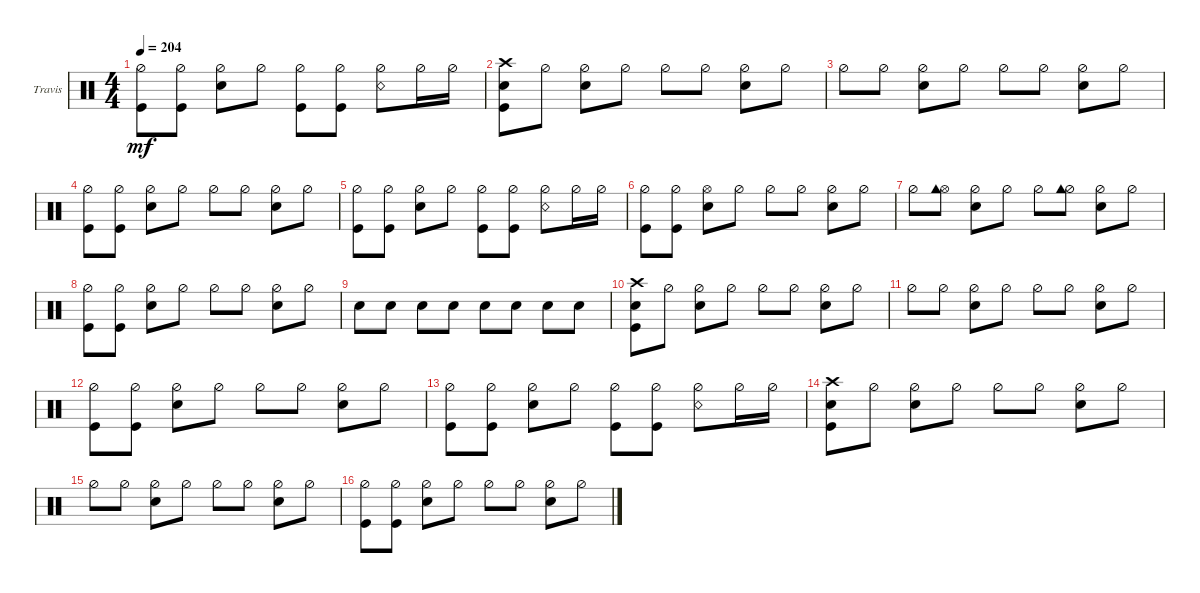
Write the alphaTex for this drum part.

\defaultSystemsLayout 4
\bracketExtendMode groupsimilarinstruments
\firstSystemTrackNameOrientation horizontal
\otherSystemsTrackNameOrientation horizontal
\track ("Travis Barker" "Travis") {instrument percussion}
\staff {score}
\articulation defaults
\ts (4 4)
\tempo 204
\clef neutral
\ks c
("Hi-Hat (half)" "Kick (hit)").8{dy mf} ("Hi-Hat (half)" "Kick (hit)").8 ("Hi-Hat (half)" "Snare (hit) 2").8 "Hi-Hat (half)".8 ("Hi-Hat (half)" "Kick (hit)").8 ("Hi-Hat (half)" "Kick (hit)").8 ("Hi-Hat (half)" "Snare (rim shot)").8 "Hi-Hat (half)".16 "Hi-Hat (half)".16 |
("Crash high (hit)" "Kick (hit)" "Snare (hit) 2").8 "Hi-Hat (half)".8 ("Hi-Hat (half)" "Snare (hit) 2").8 "Hi-Hat (half)".8 "Hi-Hat (half)".8 "Hi-Hat (half)".8 ("Hi-Hat (half)" "Snare (hit) 2").8 "Hi-Hat (half)".8 |
"Hi-Hat (half)".8 "Hi-Hat (half)".8 ("Hi-Hat (half)" "Snare (hit) 2").8 "Hi-Hat (half)".8 "Hi-Hat (half)".8 "Hi-Hat (half)".8 ("Hi-Hat (half)" "Snare (hit) 2").8 "Hi-Hat (half)".8 |
("Hi-Hat (half)" "Kick (hit)").8 ("Kick (hit)" "Hi-Hat (half)").8 ("Hi-Hat (half)" "Snare (hit) 2").8 "Hi-Hat (half)".8 "Hi-Hat (half)".8 "Hi-Hat (half)".8 ("Hi-Hat (half)" "Snare (hit) 2").8 "Hi-Hat (half)".8 |
("Hi-Hat (half)" "Kick (hit)").8 ("Hi-Hat (half)" "Kick (hit)").8 ("Hi-Hat (half)" "Snare (hit) 2").8 "Hi-Hat (half)".8 ("Hi-Hat (half)" "Kick (hit)").8 ("Hi-Hat (half)" "Kick (hit)").8 ("Hi-Hat (half)" "Snare (rim shot)").8 "Hi-Hat (half)".16 "Hi-Hat (half)".16 |
("Hi-Hat (half)" "Kick (hit)").8 ("Kick (hit)" "Hi-Hat (half)").8 ("Hi-Hat (open)" "Snare (hit) 2").8 "Hi-Hat (half)".8 "Hi-Hat (half)".8 "Hi-Hat (half)".8 ("Hi-Hat (half)" "Snare (hit) 2").8 "Hi-Hat (half)".8 |
"Hi-Hat (half)".8 ("Hi-Hat (open)" "Cowbell high (hit)").8 ("Hi-Hat (half)" "Snare (hit) 2").8 "Hi-Hat (half)".8 "Hi-Hat (half)".8 ("Hi-Hat (half)" "Cowbell high (hit)").8 ("Hi-Hat (half)" "Snare (hit) 2").8 "Hi-Hat (half)".8 |
("Hi-Hat (half)" "Kick (hit)").8 ("Kick (hit)" "Hi-Hat (half)").8 ("Hi-Hat (half)" "Snare (hit) 2").8 "Hi-Hat (half)".8 "Hi-Hat (half)".8 "Hi-Hat (half)".8 ("Hi-Hat (half)" "Snare (hit) 2").8 "Hi-Hat (half)".8 |
"Snare (hit) 2".8 "Snare (hit) 2".8 "Snare (hit) 2".8 "Snare (hit) 2".8 "Snare (hit) 2".8 "Snare (hit) 2".8 "Snare (hit) 2".8 "Snare (hit) 2".8 |
("Crash high (hit)" "Kick (hit)" "Snare (hit) 2").8 "Hi-Hat (half)".8 ("Hi-Hat (half)" "Snare (hit) 2").8 "Hi-Hat (half)".8 "Hi-Hat (half)".8 "Hi-Hat (half)".8 ("Hi-Hat (half)" "Snare (hit) 2").8 "Hi-Hat (half)".8 |
"Hi-Hat (half)".8 "Hi-Hat (half)".8 ("Hi-Hat (half)" "Snare (hit) 2").8 "Hi-Hat (half)".8 "Hi-Hat (half)".8 "Hi-Hat (half)".8 ("Hi-Hat (half)" "Snare (hit) 2").8 "Hi-Hat (half)".8 |
("Hi-Hat (half)" "Kick (hit)").8 ("Kick (hit)" "Hi-Hat (half)").8 ("Hi-Hat (half)" "Snare (hit) 2").8 "Hi-Hat (half)".8 "Hi-Hat (half)".8 "Hi-Hat (half)".8 ("Hi-Hat (half)" "Snare (hit) 2").8 "Hi-Hat (half)".8 |
("Hi-Hat (half)" "Kick (hit)").8 ("Hi-Hat (half)" "Kick (hit)").8 ("Hi-Hat (half)" "Snare (hit) 2").8 "Hi-Hat (half)".8 ("Hi-Hat (half)" "Kick (hit)").8 ("Hi-Hat (half)" "Kick (hit)").8 ("Hi-Hat (half)" "Snare (rim shot)").8 "Hi-Hat (half)".16 "Hi-Hat (half)".16 |
("Crash high (hit)" "Kick (hit)" "Snare (hit) 2").8 "Hi-Hat (half)".8 ("Hi-Hat (half)" "Snare (hit) 2").8 "Hi-Hat (half)".8 "Hi-Hat (half)".8 "Hi-Hat (half)".8 ("Hi-Hat (half)" "Snare (hit) 2").8 "Hi-Hat (half)".8 |
"Hi-Hat (half)".8 "Hi-Hat (half)".8 ("Hi-Hat (half)" "Snare (hit) 2").8 "Hi-Hat (half)".8 "Hi-Hat (half)".8 "Hi-Hat (half)".8 ("Hi-Hat (half)" "Snare (hit) 2").8 "Hi-Hat (half)".8 |
("Hi-Hat (half)" "Kick (hit)").8 ("Kick (hit)" "Hi-Hat (half)").8 ("Hi-Hat (half)" "Snare (hit) 2").8 "Hi-Hat (half)".8 "Hi-Hat (half)".8 "Hi-Hat (half)".8 ("Hi-Hat (half)" "Snare (hit) 2").8 "Hi-Hat (half)".8
